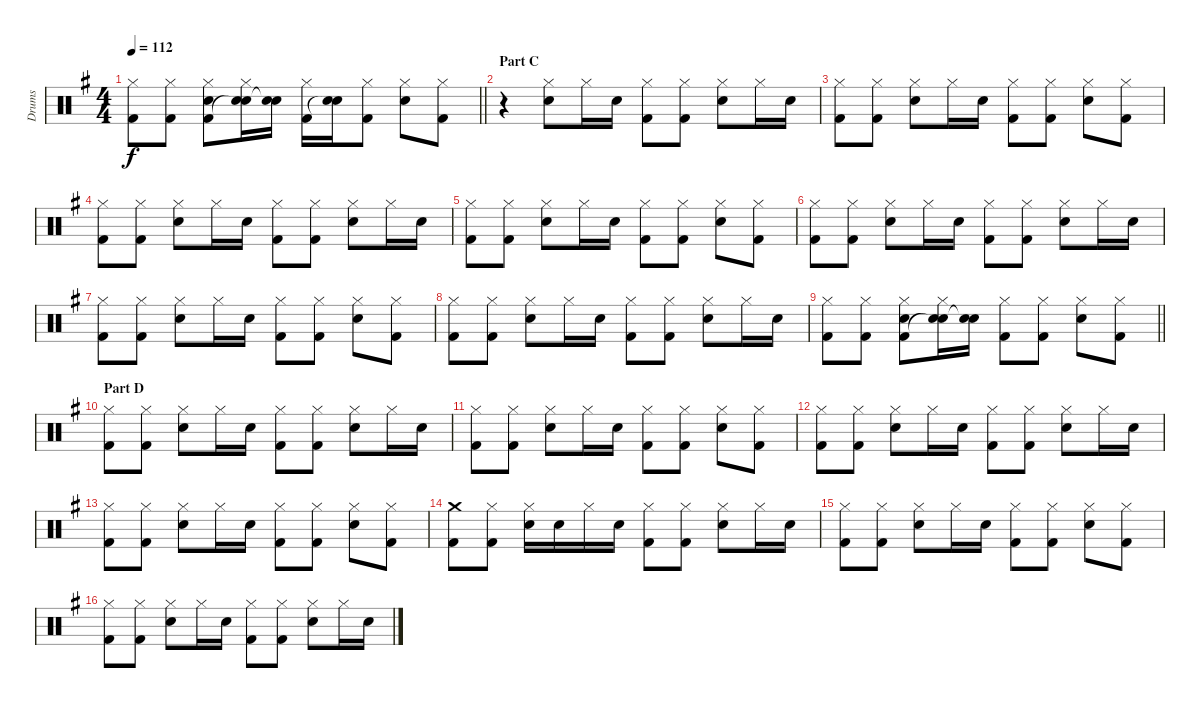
\track ("Drums" "Drums") {instrument percussion}
\staff {score}
\articulation defaults
\ts (4 4)
\tempo 112
\clef neutral
\barLineRight lightlight
\ks g
("Hi-Hat (closed)" "Kick (hit) 2").8{dy f} ("Hi-Hat (closed)" "Kick (hit) 2").8 ("Hi-Hat (closed)" "Electric Snare (hit)" "Kick (hit) 2").8 ("Hi-Hat (closed)" "Electric Snare (hit)" "Snare (hit)"{t}).16 ("Electric Snare (hit)" "Snare (hit)"{t}).16 ("Hi-Hat (closed)" "Kick (hit) 2").16 ("Electric Snare (hit)" "Snare (hit)"{t}).16 ("Hi-Hat (closed)" "Kick (hit) 2").8 ("Hi-Hat (closed)" "Electric Snare (hit)").8 ("Hi-Hat (closed)" "Kick (hit) 2").8 |
\section ("" "Part C")
r.4 ("Hi-Hat (closed)" "Electric Snare (hit)").8 "Hi-Hat (closed)".16 "Electric Snare (hit)".16 ("Hi-Hat (closed)" "Kick (hit) 2").8 ("Hi-Hat (closed)" "Kick (hit) 2").8 ("Hi-Hat (closed)" "Electric Snare (hit)").8 "Hi-Hat (closed)".16 "Electric Snare (hit)".16 |
("Hi-Hat (closed)" "Kick (hit) 2").8 ("Hi-Hat (closed)" "Kick (hit) 2").8 ("Hi-Hat (closed)" "Electric Snare (hit)").8 "Hi-Hat (closed)".16 "Electric Snare (hit)".16 ("Hi-Hat (closed)" "Kick (hit) 2").8 ("Hi-Hat (closed)" "Kick (hit) 2").8 ("Hi-Hat (closed)" "Electric Snare (hit)").8 ("Hi-Hat (closed)" "Kick (hit) 2").8 |
("Hi-Hat (closed)" "Kick (hit) 2").8 ("Hi-Hat (closed)" "Kick (hit) 2").8 ("Hi-Hat (closed)" "Electric Snare (hit)").8 "Hi-Hat (closed)".16 "Electric Snare (hit)".16 ("Hi-Hat (closed)" "Kick (hit) 2").8 ("Hi-Hat (closed)" "Kick (hit) 2").8 ("Hi-Hat (closed)" "Electric Snare (hit)").8 "Hi-Hat (closed)".16 "Electric Snare (hit)".16 |
("Hi-Hat (closed)" "Kick (hit) 2").8 ("Hi-Hat (closed)" "Kick (hit) 2").8 ("Hi-Hat (closed)" "Electric Snare (hit)").8 "Hi-Hat (closed)".16 "Electric Snare (hit)".16 ("Hi-Hat (closed)" "Kick (hit) 2").8 ("Hi-Hat (closed)" "Kick (hit) 2").8 ("Hi-Hat (closed)" "Electric Snare (hit)").8 ("Hi-Hat (closed)" "Kick (hit) 2").8 |
("Hi-Hat (closed)" "Kick (hit) 2").8 ("Hi-Hat (closed)" "Kick (hit) 2").8 ("Hi-Hat (closed)" "Electric Snare (hit)").8 "Hi-Hat (closed)".16 "Electric Snare (hit)".16 ("Hi-Hat (closed)" "Kick (hit) 2").8 ("Hi-Hat (closed)" "Kick (hit) 2").8 ("Hi-Hat (closed)" "Electric Snare (hit)").8 "Hi-Hat (closed)".16 "Electric Snare (hit)".16 |
("Hi-Hat (closed)" "Kick (hit) 2").8 ("Hi-Hat (closed)" "Kick (hit) 2").8 ("Hi-Hat (closed)" "Electric Snare (hit)").8 "Hi-Hat (closed)".16 "Electric Snare (hit)".16 ("Hi-Hat (closed)" "Kick (hit) 2").8 ("Hi-Hat (closed)" "Kick (hit) 2").8 ("Hi-Hat (closed)" "Electric Snare (hit)").8 ("Hi-Hat (closed)" "Kick (hit) 2").8 |
("Hi-Hat (closed)" "Kick (hit) 2").8 ("Hi-Hat (closed)" "Kick (hit) 2").8 ("Hi-Hat (closed)" "Electric Snare (hit)").8 "Hi-Hat (closed)".16 "Electric Snare (hit)".16 ("Hi-Hat (closed)" "Kick (hit) 2").8 ("Hi-Hat (closed)" "Kick (hit) 2").8 ("Hi-Hat (closed)" "Electric Snare (hit)").8 "Hi-Hat (closed)".16 "Electric Snare (hit)".16 |
\barLineRight lightlight
("Hi-Hat (closed)" "Kick (hit) 2").8 ("Hi-Hat (closed)" "Kick (hit) 2").8 ("Hi-Hat (closed)" "Electric Snare (hit)" "Kick (hit) 2").8 ("Hi-Hat (closed)" "Electric Snare (hit)" "Snare (hit)"{t}).16 ("Electric Snare (hit)" "Snare (hit)"{t}).16 ("Hi-Hat (closed)" "Kick (hit) 2").8 ("Hi-Hat (closed)" "Kick (hit) 2").8 ("Hi-Hat (closed)" "Electric Snare (hit)").8 ("Hi-Hat (closed)" "Kick (hit) 2").8 |
\section ("" "Part D")
("Hi-Hat (closed)" "Kick (hit) 2").8 ("Hi-Hat (closed)" "Kick (hit) 2").8 ("Hi-Hat (closed)" "Electric Snare (hit)").8 "Hi-Hat (closed)".16 "Electric Snare (hit)".16 ("Hi-Hat (closed)" "Kick (hit) 2").8 ("Hi-Hat (closed)" "Kick (hit) 2").8 ("Hi-Hat (closed)" "Electric Snare (hit)").8 "Hi-Hat (closed)".16 "Electric Snare (hit)".16 |
("Hi-Hat (closed)" "Kick (hit) 2").8 ("Hi-Hat (closed)" "Kick (hit) 2").8 ("Hi-Hat (closed)" "Electric Snare (hit)").8 "Hi-Hat (closed)".16 "Electric Snare (hit)".16 ("Hi-Hat (closed)" "Kick (hit) 2").8 ("Hi-Hat (closed)" "Kick (hit) 2").8 ("Hi-Hat (closed)" "Electric Snare (hit)").8 ("Hi-Hat (closed)" "Kick (hit) 2").8 |
("Hi-Hat (closed)" "Kick (hit) 2").8 ("Hi-Hat (closed)" "Kick (hit) 2").8 ("Hi-Hat (closed)" "Electric Snare (hit)").8 "Hi-Hat (closed)".16 "Electric Snare (hit)".16 ("Hi-Hat (closed)" "Kick (hit) 2").8 ("Hi-Hat (closed)" "Kick (hit) 2").8 ("Hi-Hat (closed)" "Electric Snare (hit)").8 "Hi-Hat (closed)".16 "Electric Snare (hit)".16 |
("Hi-Hat (closed)" "Kick (hit) 2").8 ("Hi-Hat (closed)" "Kick (hit) 2").8 ("Hi-Hat (closed)" "Electric Snare (hit)").8 "Hi-Hat (closed)".16 "Electric Snare (hit)".16 ("Hi-Hat (closed)" "Kick (hit) 2").8 ("Hi-Hat (closed)" "Kick (hit) 2").8 ("Hi-Hat (closed)" "Electric Snare (hit)").8 ("Hi-Hat (closed)" "Kick (hit) 2").8 |
("Crash medium (hit)" "Kick (hit) 2").8 ("Hi-Hat (closed)" "Kick (hit) 2").8 ("Hi-Hat (closed)" "Electric Snare (hit)").16 "Electric Snare (hit)".16 "Hi-Hat (closed)".16 "Electric Snare (hit)".16 ("Hi-Hat (closed)" "Kick (hit) 2").8 ("Hi-Hat (closed)" "Kick (hit) 2").8 ("Hi-Hat (closed)" "Electric Snare (hit)").8 "Hi-Hat (closed)".16 "Electric Snare (hit)".16 |
("Hi-Hat (closed)" "Kick (hit) 2").8 ("Hi-Hat (closed)" "Kick (hit) 2").8 ("Hi-Hat (closed)" "Electric Snare (hit)").8 "Hi-Hat (closed)".16 "Electric Snare (hit)".16 ("Hi-Hat (closed)" "Kick (hit) 2").8 ("Hi-Hat (closed)" "Kick (hit) 2").8 ("Hi-Hat (closed)" "Electric Snare (hit)").8 ("Hi-Hat (closed)" "Kick (hit) 2").8 |
("Hi-Hat (closed)" "Kick (hit) 2").8 ("Hi-Hat (closed)" "Kick (hit) 2").8 ("Hi-Hat (closed)" "Electric Snare (hit)").8 "Hi-Hat (closed)".16 "Electric Snare (hit)".16 ("Hi-Hat (closed)" "Kick (hit) 2").8 ("Hi-Hat (closed)" "Kick (hit) 2").8 ("Hi-Hat (closed)" "Electric Snare (hit)").8 "Hi-Hat (closed)".16 "Electric Snare (hit)".16
